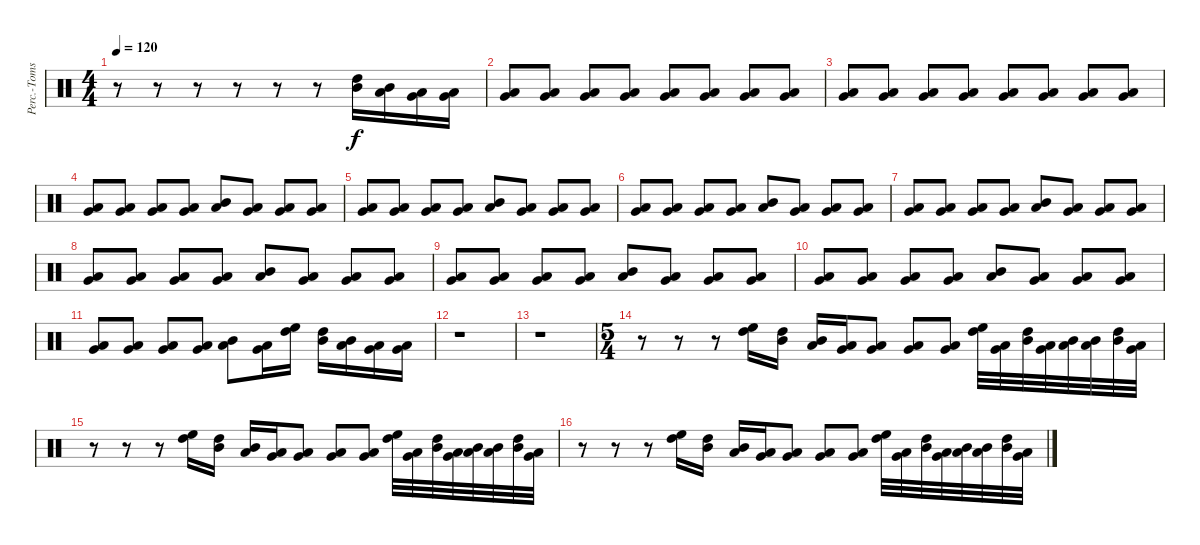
\track ("Perc.-Toms 2" "Perc.-Toms") {instrument percussion}
\staff {score}
\articulation defaults
\ts (4 4)
\tempo 120
\clef neutral
\ks c
r.8{dy f} r.8 r.8 r.8 r.8 r.8 ("High Tom (hit)" "Mid Tom (hit)").16 ("Mid Tom (hit)" "Low Tom (hit)").16 ("Low Tom (hit)" "Very Low Tom (hit)").16 ("Very Low Tom (hit)" "Low Floor Tom (hit)").16 |
("Low Tom (hit)" "Very Low Tom (hit)").8 ("Very Low Tom (hit)" "Low Floor Tom (hit)").8 ("Low Tom (hit)" "Very Low Tom (hit)").8 ("Very Low Tom (hit)" "Low Floor Tom (hit)").8 ("Low Tom (hit)" "Very Low Tom (hit)").8 ("Very Low Tom (hit)" "Low Floor Tom (hit)").8 ("Low Tom (hit)" "Very Low Tom (hit)").8 ("Very Low Tom (hit)" "Low Floor Tom (hit)").8 |
("Low Tom (hit)" "Very Low Tom (hit)").8 ("Very Low Tom (hit)" "Low Floor Tom (hit)").8 ("Low Tom (hit)" "Very Low Tom (hit)").8 ("Very Low Tom (hit)" "Low Floor Tom (hit)").8 ("Low Tom (hit)" "Very Low Tom (hit)").8 ("Very Low Tom (hit)" "Low Floor Tom (hit)").8 ("Low Tom (hit)" "Very Low Tom (hit)").8 ("Very Low Tom (hit)" "Low Floor Tom (hit)").8 |
("Very Low Tom (hit)" "Low Floor Tom (hit)").8 ("Low Tom (hit)" "Very Low Tom (hit)").8 ("Low Tom (hit)" "Very Low Tom (hit)").8 ("Low Tom (hit)" "Very Low Tom (hit)").8 ("Mid Tom (hit)" "Low Tom (hit)").8 ("Low Tom (hit)" "Very Low Tom (hit)").8 ("Low Tom (hit)" "Very Low Tom (hit)").8 ("Low Tom (hit)" "Very Low Tom (hit)").8 |
("Very Low Tom (hit)" "Low Floor Tom (hit)").8 ("Low Tom (hit)" "Very Low Tom (hit)").8 ("Low Tom (hit)" "Very Low Tom (hit)").8 ("Low Tom (hit)" "Very Low Tom (hit)").8 ("Mid Tom (hit)" "Low Tom (hit)").8 ("Low Tom (hit)" "Very Low Tom (hit)").8 ("Low Tom (hit)" "Very Low Tom (hit)").8 ("Low Tom (hit)" "Very Low Tom (hit)").8 |
("Very Low Tom (hit)" "Low Floor Tom (hit)").8 ("Low Tom (hit)" "Very Low Tom (hit)").8 ("Low Tom (hit)" "Very Low Tom (hit)").8 ("Low Tom (hit)" "Very Low Tom (hit)").8 ("Mid Tom (hit)" "Low Tom (hit)").8 ("Low Tom (hit)" "Very Low Tom (hit)").8 ("Low Tom (hit)" "Very Low Tom (hit)").8 ("Low Tom (hit)" "Very Low Tom (hit)").8 |
("Very Low Tom (hit)" "Low Floor Tom (hit)").8 ("Low Tom (hit)" "Very Low Tom (hit)").8 ("Low Tom (hit)" "Very Low Tom (hit)").8 ("Low Tom (hit)" "Very Low Tom (hit)").8 ("Mid Tom (hit)" "Low Tom (hit)").8 ("Low Tom (hit)" "Very Low Tom (hit)").8 ("Low Tom (hit)" "Very Low Tom (hit)").8 ("Low Tom (hit)" "Very Low Tom (hit)").8 |
("Very Low Tom (hit)" "Low Floor Tom (hit)").8 ("Low Tom (hit)" "Very Low Tom (hit)").8 ("Low Tom (hit)" "Very Low Tom (hit)").8 ("Low Tom (hit)" "Very Low Tom (hit)").8 ("Mid Tom (hit)" "Low Tom (hit)").8 ("Low Tom (hit)" "Very Low Tom (hit)").8 ("Low Tom (hit)" "Very Low Tom (hit)").8 ("Low Tom (hit)" "Very Low Tom (hit)").8 |
("Very Low Tom (hit)" "Low Floor Tom (hit)").8 ("Low Tom (hit)" "Very Low Tom (hit)").8 ("Low Tom (hit)" "Very Low Tom (hit)").8 ("Low Tom (hit)" "Very Low Tom (hit)").8 ("Mid Tom (hit)" "Low Tom (hit)").8 ("Low Tom (hit)" "Very Low Tom (hit)").8 ("Low Tom (hit)" "Very Low Tom (hit)").8 ("Low Tom (hit)" "Very Low Tom (hit)").8 |
("Very Low Tom (hit)" "Low Floor Tom (hit)").8 ("Low Tom (hit)" "Very Low Tom (hit)").8 ("Low Tom (hit)" "Very Low Tom (hit)").8 ("Low Tom (hit)" "Very Low Tom (hit)").8 ("Mid Tom (hit)" "Low Tom (hit)").8 ("Low Tom (hit)" "Very Low Tom (hit)").8 ("Low Tom (hit)" "Very Low Tom (hit)").8 ("Low Tom (hit)" "Very Low Tom (hit)").8 |
("Very Low Tom (hit)" "Low Floor Tom (hit)").8 ("Low Tom (hit)" "Very Low Tom (hit)").8 ("Low Tom (hit)" "Very Low Tom (hit)").8 ("Low Tom (hit)" "Very Low Tom (hit)").8 ("Mid Tom (hit)" "Low Tom (hit)").8 ("Low Tom (hit)" "Very Low Tom (hit)").16 ("High Floor Tom (hit)" "High Tom (hit)").16 ("High Tom (hit)" "Mid Tom (hit)").16 ("Mid Tom (hit)" "Low Tom (hit)").16 ("Low Tom (hit)" "Very Low Tom (hit)").16 ("Very Low Tom (hit)" "Low Floor Tom (hit)").16 |
r.1 |
r.1 |
\ts (5 4)
r.8 r.8 r.8 ("High Floor Tom (hit)" "High Tom (hit)").16 ("High Tom (hit)" "Mid Tom (hit)").16 ("Mid Tom (hit)" "Low Tom (hit)").16 ("Low Tom (hit)" "Very Low Tom (hit)").16 ("Very Low Tom (hit)" "Low Floor Tom (hit)").8 ("Very Low Tom (hit)" "Low Floor Tom (hit)").8 ("Very Low Tom (hit)" "Low Floor Tom (hit)").8 ("High Floor Tom (hit)" "High Tom (hit)").32 ("Very Low Tom (hit)" "Low Floor Tom (hit)").32 ("High Tom (hit)" "Mid Tom (hit)").32 ("Low Tom (hit)" "Very Low Tom (hit)").32 ("Mid Tom (hit)" "Low Tom (hit)").32 ("Low Tom (hit)" "Mid Tom (hit)").32 ("High Tom (hit)" "Mid Tom (hit)").32 ("Very Low Tom (hit)" "Low Floor Tom (hit)").32 |
r.8 r.8 r.8 ("High Floor Tom (hit)" "High Tom (hit)").16 ("High Tom (hit)" "Mid Tom (hit)").16 ("Mid Tom (hit)" "Low Tom (hit)").16 ("Low Tom (hit)" "Very Low Tom (hit)").16 ("Very Low Tom (hit)" "Low Floor Tom (hit)").8 ("Very Low Tom (hit)" "Low Floor Tom (hit)").8 ("Very Low Tom (hit)" "Low Floor Tom (hit)").8 ("High Floor Tom (hit)" "High Tom (hit)").32 ("Very Low Tom (hit)" "Low Floor Tom (hit)").32 ("High Tom (hit)" "Mid Tom (hit)").32 ("Low Tom (hit)" "Very Low Tom (hit)").32 ("Mid Tom (hit)" "Low Tom (hit)").32 ("Low Tom (hit)" "Mid Tom (hit)").32 ("High Tom (hit)" "Mid Tom (hit)").32 ("Very Low Tom (hit)" "Low Floor Tom (hit)").32 |
r.8 r.8 r.8 ("High Floor Tom (hit)" "High Tom (hit)").16 ("High Tom (hit)" "Mid Tom (hit)").16 ("Mid Tom (hit)" "Low Tom (hit)").16 ("Low Tom (hit)" "Very Low Tom (hit)").16 ("Very Low Tom (hit)" "Low Floor Tom (hit)").8 ("Very Low Tom (hit)" "Low Floor Tom (hit)").8 ("Very Low Tom (hit)" "Low Floor Tom (hit)").8 ("High Floor Tom (hit)" "High Tom (hit)").32 ("Very Low Tom (hit)" "Low Floor Tom (hit)").32 ("High Tom (hit)" "Mid Tom (hit)").32 ("Low Tom (hit)" "Very Low Tom (hit)").32 ("Mid Tom (hit)" "Low Tom (hit)").32 ("Low Tom (hit)" "Mid Tom (hit)").32 ("High Tom (hit)" "Mid Tom (hit)").32 ("Very Low Tom (hit)" "Low Floor Tom (hit)").32
